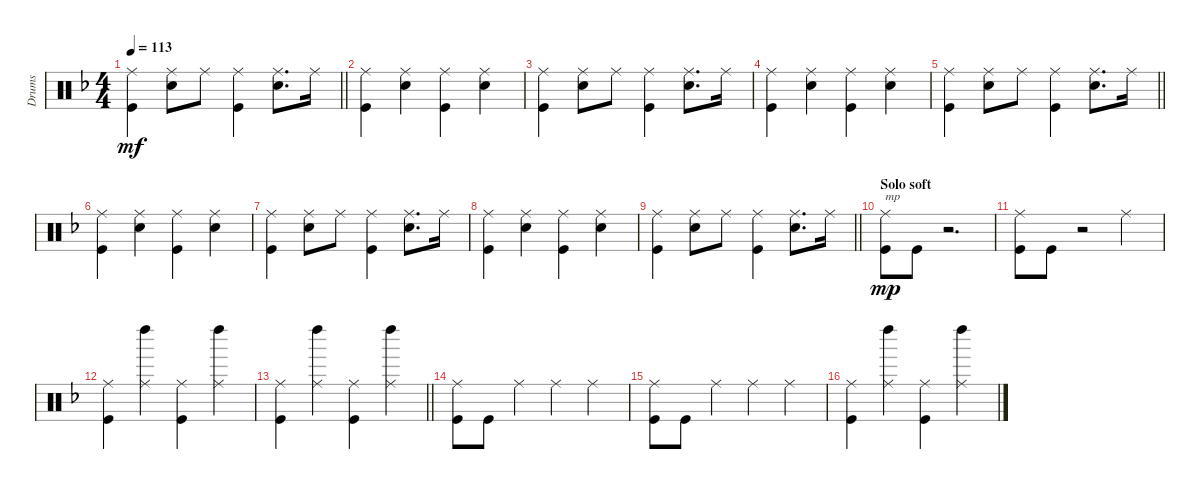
\track ("Drums" "Drums") {instrument percussion}
\staff {score}
\articulation defaults
\ts (4 4)
\tempo 113
\clef neutral
\barLineRight lightlight
\ks dminor
("Ride (middle)" "Kick (hit)").4{dy mf} ("Ride (middle)" "Electric Snare (hit)").8 "Ride (middle)".8 ("Ride (middle)" "Kick (hit)").4 ("Ride (middle)" "Electric Snare (hit)").8{d} "Ride (middle)".16 |
\section ("" "")
("Ride (middle)" "Kick (hit)").4 ("Ride (middle)" "Electric Snare (hit)").4 ("Ride (middle)" "Kick (hit)").4 ("Ride (middle)" "Electric Snare (hit)").4 |
("Ride (middle)" "Kick (hit)").4 ("Ride (middle)" "Electric Snare (hit)").8 "Ride (middle)".8 ("Ride (middle)" "Kick (hit)").4 ("Ride (middle)" "Electric Snare (hit)").8{d} "Ride (middle)".16 |
("Ride (middle)" "Kick (hit)").4 ("Ride (middle)" "Electric Snare (hit)").4 ("Ride (middle)" "Kick (hit)").4 ("Ride (middle)" "Electric Snare (hit)").4 |
\barLineRight lightlight
("Ride (middle)" "Kick (hit)").4 ("Ride (middle)" "Electric Snare (hit)").8 "Ride (middle)".8 ("Ride (middle)" "Kick (hit)").4 ("Ride (middle)" "Electric Snare (hit)").8{d} "Ride (middle)".16 |
\section ("" "")
("Ride (middle)" "Kick (hit)").4 ("Ride (middle)" "Electric Snare (hit)").4 ("Ride (middle)" "Kick (hit)").4 ("Ride (middle)" "Electric Snare (hit)").4 |
("Ride (middle)" "Kick (hit)").4 ("Ride (middle)" "Electric Snare (hit)").8 "Ride (middle)".8 ("Ride (middle)" "Kick (hit)").4 ("Ride (middle)" "Electric Snare (hit)").8{d} "Ride (middle)".16 |
("Ride (middle)" "Kick (hit)").4 ("Ride (middle)" "Electric Snare (hit)").4 ("Ride (middle)" "Kick (hit)").4 ("Ride (middle)" "Electric Snare (hit)").4 |
\barLineRight lightlight
("Ride (middle)" "Kick (hit)").4 ("Ride (middle)" "Electric Snare (hit)").8 "Ride (middle)".8 ("Ride (middle)" "Kick (hit)").4 ("Ride (middle)" "Electric Snare (hit)").8{d} "Ride (middle)".16 |
\section ("" "Solo soft")
("Ride (middle)" "Kick (hit)").8{txt "mp" dy mp} "Kick (hit)".8 r.2{d} |
("Ride (middle)" "Kick (hit)").8 "Kick (hit)".8 r.2 "Ride (middle)".4 |
("Ride (middle)" "Kick (hit)").4 ("Ride (middle)" "Left Maraca (hit)").4 ("Ride (middle)" "Kick (hit)").4 ("Ride (middle)" "Left Maraca (hit)").4 |
\barLineRight lightlight
("Ride (middle)" "Kick (hit)").4 ("Ride (middle)" "Left Maraca (hit)").4 ("Ride (middle)" "Kick (hit)").4 ("Ride (middle)" "Left Maraca (hit)").4 |
\section ("" "")
("Ride (middle)" "Kick (hit)").8 "Kick (hit)".8 "Ride (middle)".4 "Ride (middle)".4 "Ride (middle)".4 |
("Ride (middle)" "Kick (hit)").8 "Kick (hit)".8 "Ride (middle)".4 "Ride (middle)".4 "Ride (middle)".4 |
("Ride (middle)" "Kick (hit)").4 ("Ride (middle)" "Left Maraca (hit)").4 ("Ride (middle)" "Kick (hit)").4 ("Ride (middle)" "Left Maraca (hit)").4
